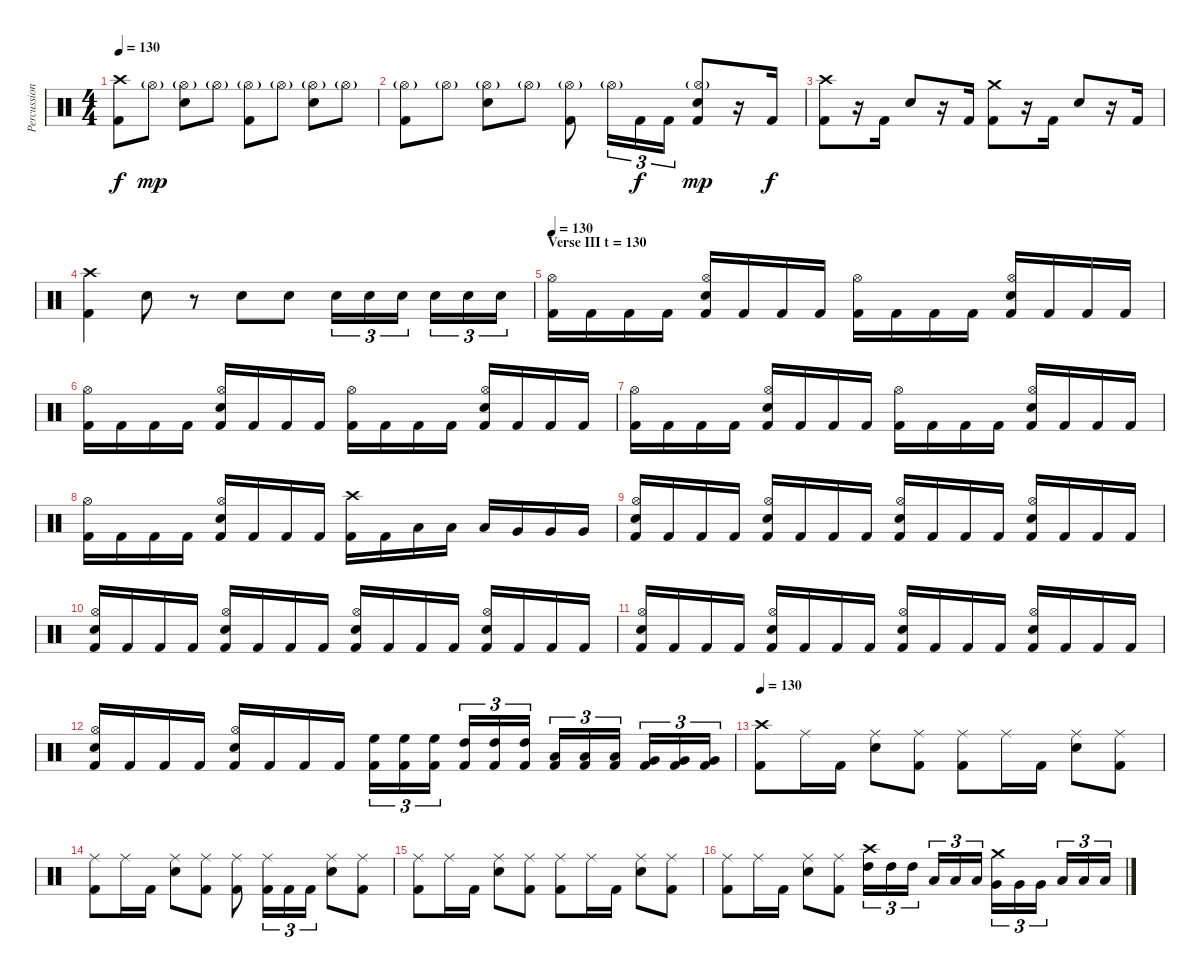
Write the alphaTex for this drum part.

\track ("Percussion" "Percussion") {instrument percussion}
\staff {score}
\articulation defaults
\ts (4 4)
\tempo 130
\clef neutral
\ks c
("Crash high (hit)" "Kick (hit) 2").8{dy f} "Hi-Hat (open)"{g}.8{dy mp} ("Hi-Hat (open)"{g} "Electric Snare (hit)").8 "Hi-Hat (open)"{g}.8 ("Hi-Hat (open)"{g} "Kick (hit) 2").8 "Hi-Hat (open)"{g}.8 ("Hi-Hat (open)"{g} "Electric Snare (hit)").8 "Hi-Hat (open)"{g}.8 |
("Hi-Hat (open)"{g} "Kick (hit) 2").8 "Hi-Hat (open)"{g}.8 ("Hi-Hat (open)"{g} "Electric Snare (hit)").8 "Hi-Hat (open)"{g}.8 ("Hi-Hat (open)"{g} "Kick (hit) 2").8 "Hi-Hat (open)"{g}.16{tu (3 2)} "Kick (hit) 2".16{tu (3 2) dy f} "Kick (hit) 2".16{tu (3 2)} ("Hi-Hat (open)"{g} "Electric Snare (hit)" "Kick (hit) 2").8{dy mp} r.16 "Kick (hit) 2".16{dy f} |
("Crash high (hit)" "Kick (hit) 2").8 r.16 "Kick (hit) 2".16 "Electric Snare (hit)".8 r.16 "Kick (hit) 2".16 ("Crash medium (hit)" "Kick (hit) 2").8 r.16 "Kick (hit) 2".16 "Electric Snare (hit)".8 r.16 "Kick (hit) 2".16 |
("Crash high (hit)" "Kick (hit) 2").4 "Electric Snare (hit)".8 r.8 "Electric Snare (hit)".8 "Electric Snare (hit)".8 "Electric Snare (hit)".16{tu (3 2)} "Electric Snare (hit)".16{tu (3 2)} "Electric Snare (hit)".16{tu (3 2)} "Electric Snare (hit)".16{tu (3 2)} "Electric Snare (hit)".16{tu (3 2)} "Electric Snare (hit)".16{tu (3 2)} |
\section ("" "Verse III t = 130")
\tempo 130
("Hi-Hat (open)" "Kick (hit) 2").16 "Kick (hit) 2".16 "Kick (hit) 2".16 "Kick (hit) 2".16 ("Hi-Hat (open)" "Electric Snare (hit)" "Kick (hit) 2").16 "Kick (hit) 2".16 "Kick (hit) 2".16 "Kick (hit) 2".16 ("Hi-Hat (open)" "Kick (hit) 2").16 "Kick (hit) 2".16 "Kick (hit) 2".16 "Kick (hit) 2".16 ("Hi-Hat (open)" "Electric Snare (hit)" "Kick (hit) 2").16 "Kick (hit) 2".16 "Kick (hit) 2".16 "Kick (hit) 2".16 |
("Hi-Hat (open)" "Kick (hit) 2").16 "Kick (hit) 2".16 "Kick (hit) 2".16 "Kick (hit) 2".16 ("Hi-Hat (open)" "Electric Snare (hit)" "Kick (hit) 2").16 "Kick (hit) 2".16 "Kick (hit) 2".16 "Kick (hit) 2".16 ("Hi-Hat (open)" "Kick (hit) 2").16 "Kick (hit) 2".16 "Kick (hit) 2".16 "Kick (hit) 2".16 ("Hi-Hat (open)" "Electric Snare (hit)" "Kick (hit) 2").16 "Kick (hit) 2".16 "Kick (hit) 2".16 "Kick (hit) 2".16 |
("Hi-Hat (open)" "Kick (hit) 2").16 "Kick (hit) 2".16 "Kick (hit) 2".16 "Kick (hit) 2".16 ("Hi-Hat (open)" "Electric Snare (hit)" "Kick (hit) 2").16 "Kick (hit) 2".16 "Kick (hit) 2".16 "Kick (hit) 2".16 ("Hi-Hat (open)" "Kick (hit) 2").16 "Kick (hit) 2".16 "Kick (hit) 2".16 "Kick (hit) 2".16 ("Hi-Hat (open)" "Electric Snare (hit)" "Kick (hit) 2").16 "Kick (hit) 2".16 "Kick (hit) 2".16 "Kick (hit) 2".16 |
("Hi-Hat (open)" "Kick (hit) 2").16 "Kick (hit) 2".16 "Kick (hit) 2".16 "Kick (hit) 2".16 ("Hi-Hat (open)" "Electric Snare (hit)" "Kick (hit) 2").16 "Kick (hit) 2".16 "Kick (hit) 2".16 "Kick (hit) 2".16 ("Crash high (hit)" "Kick (hit) 2").16 "Kick (hit) 2".16 "Low Tom (hit)".16 "Low Tom (hit)".16 "Low Tom (hit)".16 "Very Low Tom (hit)".16 "Very Low Tom (hit)".16 "Very Low Tom (hit)".16 |
("Hi-Hat (open)" "Electric Snare (hit)" "Kick (hit) 2").16 "Kick (hit) 2".16 "Kick (hit) 2".16 "Kick (hit) 2".16 ("Hi-Hat (open)" "Electric Snare (hit)" "Kick (hit) 2").16 "Kick (hit) 2".16 "Kick (hit) 2".16 "Kick (hit) 2".16 ("Hi-Hat (open)" "Electric Snare (hit)" "Kick (hit) 2").16 "Kick (hit) 2".16 "Kick (hit) 2".16 "Kick (hit) 2".16 ("Hi-Hat (open)" "Electric Snare (hit)" "Kick (hit) 2").16 "Kick (hit) 2".16 "Kick (hit) 2".16 "Kick (hit) 2".16 |
("Hi-Hat (open)" "Electric Snare (hit)" "Kick (hit) 2").16 "Kick (hit) 2".16 "Kick (hit) 2".16 "Kick (hit) 2".16 ("Hi-Hat (open)" "Electric Snare (hit)" "Kick (hit) 2").16 "Kick (hit) 2".16 "Kick (hit) 2".16 "Kick (hit) 2".16 ("Hi-Hat (open)" "Electric Snare (hit)" "Kick (hit) 2").16 "Kick (hit) 2".16 "Kick (hit) 2".16 "Kick (hit) 2".16 ("Hi-Hat (open)" "Electric Snare (hit)" "Kick (hit) 2").16 "Kick (hit) 2".16 "Kick (hit) 2".16 "Kick (hit) 2".16 |
("Hi-Hat (open)" "Electric Snare (hit)" "Kick (hit) 2").16 "Kick (hit) 2".16 "Kick (hit) 2".16 "Kick (hit) 2".16 ("Hi-Hat (open)" "Electric Snare (hit)" "Kick (hit) 2").16 "Kick (hit) 2".16 "Kick (hit) 2".16 "Kick (hit) 2".16 ("Hi-Hat (open)" "Electric Snare (hit)" "Kick (hit) 2").16 "Kick (hit) 2".16 "Kick (hit) 2".16 "Kick (hit) 2".16 ("Hi-Hat (open)" "Electric Snare (hit)" "Kick (hit) 2").16 "Kick (hit) 2".16 "Kick (hit) 2".16 "Kick (hit) 2".16 |
("Hi-Hat (open)" "Electric Snare (hit)" "Kick (hit) 2").16 "Kick (hit) 2".16 "Kick (hit) 2".16 "Kick (hit) 2".16 ("Hi-Hat (open)" "Electric Snare (hit)" "Kick (hit) 2").16 "Kick (hit) 2".16 "Kick (hit) 2".16 "Kick (hit) 2".16 ("High Floor Tom (hit)" "Kick (hit) 2").16{tu (3 2)} ("High Floor Tom (hit)" "Kick (hit) 2").16{tu (3 2)} ("High Floor Tom (hit)" "Kick (hit) 2").16{tu (3 2)} ("High Tom (hit)" "Kick (hit) 2").16{tu (3 2)} ("High Tom (hit)" "Kick (hit) 2").16{tu (3 2)} ("High Tom (hit)" "Kick (hit) 2").16{tu (3 2)} ("Low Tom (hit)" "Kick (hit) 2").16{tu (3 2)} ("Low Tom (hit)" "Kick (hit) 2").16{tu (3 2)} ("Low Tom (hit)" "Kick (hit) 2").16{tu (3 2)} ("Very Low Tom (hit)" "Kick (hit) 2").16{tu (3 2)} ("Very Low Tom (hit)" "Kick (hit) 2").16{tu (3 2)} ("Very Low Tom (hit)" "Kick (hit) 2").16{tu (3 2)} |
\tempo 130
("Crash high (hit)" "Kick (hit) 2").8 "Ride (middle)".16 "Kick (hit) 2".16 ("Ride (middle)" "Electric Snare (hit)").8 ("Ride (middle)" "Kick (hit) 2").8 ("Ride (middle)" "Kick (hit) 2").8 "Ride (middle)".16 "Kick (hit) 2".16 ("Ride (middle)" "Electric Snare (hit)").8 ("Ride (middle)" "Kick (hit) 2").8 |
("Ride (middle)" "Kick (hit) 2").8 "Ride (middle)".16 "Kick (hit) 2".16 ("Ride (middle)" "Electric Snare (hit)").8 ("Ride (middle)" "Kick (hit) 2").8 ("Ride (middle)" "Kick (hit) 2").8 ("Ride (middle)" "Kick (hit) 2").16{tu (3 2)} "Kick (hit) 2".16{tu (3 2)} "Kick (hit) 2".16{tu (3 2)} ("Ride (middle)" "Electric Snare (hit)").8 ("Ride (middle)" "Kick (hit) 2").8 |
("Ride (middle)" "Kick (hit) 2").8 "Ride (middle)".16 "Kick (hit) 2".16 ("Ride (middle)" "Electric Snare (hit)").8 ("Ride (middle)" "Kick (hit) 2").8 ("Ride (middle)" "Kick (hit) 2").8 "Ride (middle)".16 "Kick (hit) 2".16 ("Ride (middle)" "Electric Snare (hit)").8 ("Ride (middle)" "Kick (hit) 2").8 |
("Ride (middle)" "Kick (hit) 2").8 "Ride (middle)".16 "Kick (hit) 2".16 ("Ride (middle)" "Electric Snare (hit)").8 ("Ride (middle)" "Kick (hit) 2").8 ("Crash high (hit)" "High Tom (hit)").16{tu (3 2)} "High Tom (hit)".16{tu (3 2)} "High Tom (hit)".16{tu (3 2)} "Low Tom (hit)".16{tu (3 2)} "Low Tom (hit)".16{tu (3 2)} "Low Tom (hit)".16{tu (3 2)} ("Crash medium (hit)" "Very Low Tom (hit)").16{tu (3 2)} "Very Low Tom (hit)".16{tu (3 2)} "Very Low Tom (hit)".16{tu (3 2)} "Low Floor Tom (hit)".16{tu (3 2)} "Low Floor Tom (hit)".16{tu (3 2)} "Low Floor Tom (hit)".16{tu (3 2)}
